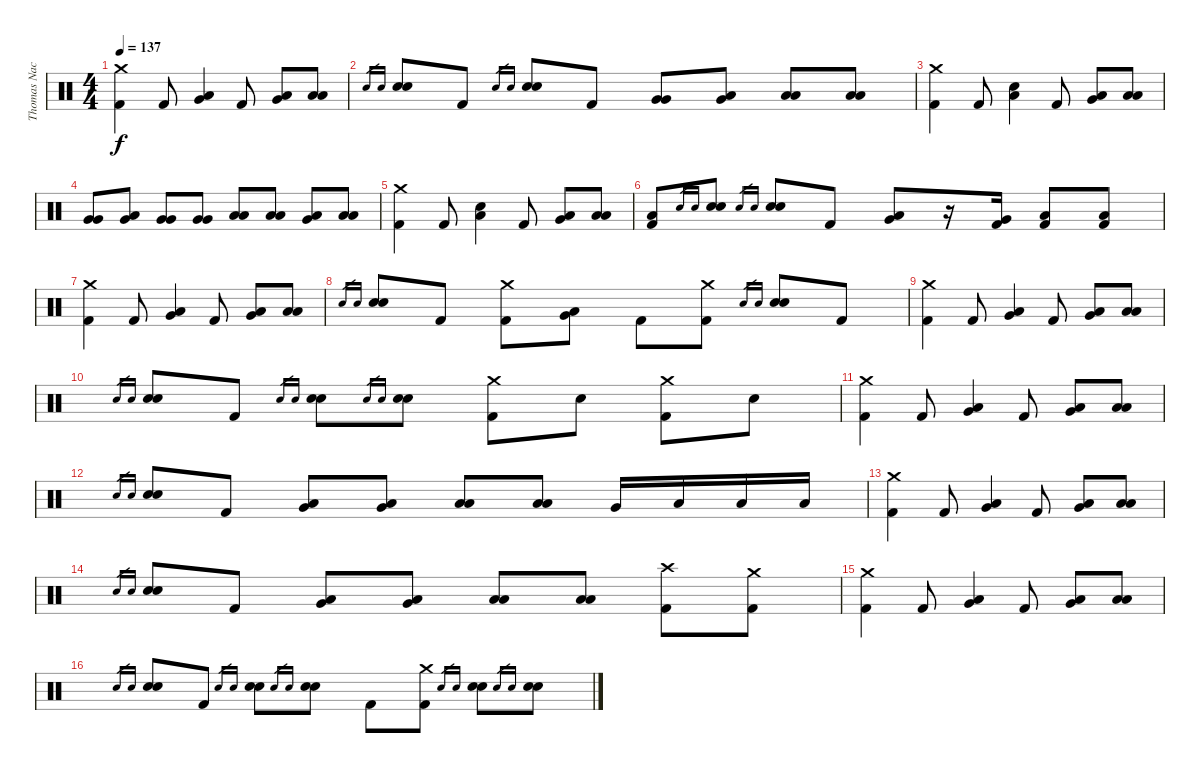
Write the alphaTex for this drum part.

\track ("Thomas Nack" "Thomas Nac") {instrument percussion}
\staff {score}
\articulation defaults
\ts (4 4)
\tempo 137
\clef neutral
\ks c
("Crash medium (hit)" "Kick (hit) 2").4{dy f} "Kick (hit) 2".8 ("Very Low Tom (hit)" "Low Floor Tom (hit)").4 "Kick (hit) 2".8 ("Very Low Tom (hit)" "Low Floor Tom (hit)").8 ("Low Floor Tom (hit)" "Low Floor Tom (hit)").8 |
"Electric Snare (hit)".16{gr} "Electric Snare (hit)".16{gr} ("Electric Snare (hit)" "Electric Snare (hit)").8 "Kick (hit) 2".8 "Electric Snare (hit)".16{gr} "Electric Snare (hit)".16{gr} ("Electric Snare (hit)" "Electric Snare (hit)").8 "Kick (hit) 2".8 ("Very Low Tom (hit)" "Very Low Tom (hit)").8 ("Very Low Tom (hit)" "Low Floor Tom (hit)").8 ("Low Floor Tom (hit)" "Low Floor Tom (hit)").8 ("Low Floor Tom (hit)" "Low Floor Tom (hit)").8 |
("Crash medium (hit)" "Kick (hit) 2").4 "Kick (hit) 2".8 ("Electric Snare (hit)" "Low Floor Tom (hit)").4 "Kick (hit) 2".8 ("Very Low Tom (hit)" "Low Floor Tom (hit)").8 ("Low Floor Tom (hit)" "Low Floor Tom (hit)").8 |
("Very Low Tom (hit)" "Very Low Tom (hit)").8 ("Very Low Tom (hit)" "Low Floor Tom (hit)").8 ("Very Low Tom (hit)" "Very Low Tom (hit)").8 ("Very Low Tom (hit)" "Very Low Tom (hit)").8 ("Low Floor Tom (hit)" "Low Floor Tom (hit)").8 ("Low Floor Tom (hit)" "Low Floor Tom (hit)").8 ("Very Low Tom (hit)" "Low Floor Tom (hit)").8 ("Low Floor Tom (hit)" "Low Floor Tom (hit)").8 |
("Crash medium (hit)" "Kick (hit) 2").4 "Kick (hit) 2".8 ("Electric Snare (hit)" "Low Floor Tom (hit)").4 "Kick (hit) 2".8 ("Very Low Tom (hit)" "Low Floor Tom (hit)").8 ("Low Floor Tom (hit)" "Low Floor Tom (hit)").8 |
("Low Floor Tom (hit)" "Kick (hit) 2").8 "Electric Snare (hit)".16{gr} "Electric Snare (hit)".16{gr} ("Electric Snare (hit)" "Electric Snare (hit)").8 "Electric Snare (hit)".16{gr} "Electric Snare (hit)".16{gr} ("Electric Snare (hit)" "Electric Snare (hit)").8 "Kick (hit) 2".8 ("Very Low Tom (hit)" "Low Floor Tom (hit)").8 r.16 ("Very Low Tom (hit)" "Kick (hit) 2").16 ("Low Floor Tom (hit)" "Kick (hit) 2").8 ("Low Floor Tom (hit)" "Kick (hit) 2").8 |
("Crash medium (hit)" "Kick (hit) 2").4 "Kick (hit) 2".8 ("Very Low Tom (hit)" "Low Floor Tom (hit)").4 "Kick (hit) 2".8 ("Very Low Tom (hit)" "Low Floor Tom (hit)").8 ("Low Floor Tom (hit)" "Low Floor Tom (hit)").8 |
"Electric Snare (hit)".16{gr} "Electric Snare (hit)".16{gr} ("Electric Snare (hit)" "Electric Snare (hit)").8 "Kick (hit) 2".8 ("Crash medium (hit)" "Kick (hit) 2").8 ("Very Low Tom (hit)" "Low Floor Tom (hit)").8 "Kick (hit) 2".8 ("Crash medium (hit)" "Kick (hit) 2").8 "Electric Snare (hit)".16{gr} "Electric Snare (hit)".16{gr} ("Electric Snare (hit)" "Electric Snare (hit)").8 "Kick (hit) 2".8 |
("Crash medium (hit)" "Kick (hit) 2").4 "Kick (hit) 2".8 ("Very Low Tom (hit)" "Low Floor Tom (hit)").4 "Kick (hit) 2".8 ("Very Low Tom (hit)" "Low Floor Tom (hit)").8 ("Low Floor Tom (hit)" "Low Floor Tom (hit)").8 |
"Electric Snare (hit)".16{gr} "Electric Snare (hit)".16{gr} ("Electric Snare (hit)" "Electric Snare (hit)").8 "Kick (hit) 2".8 "Electric Snare (hit)".16{gr} "Electric Snare (hit)".16{gr} ("Electric Snare (hit)" "Electric Snare (hit)").8 "Electric Snare (hit)".16{gr} "Electric Snare (hit)".16{gr} ("Electric Snare (hit)" "Electric Snare (hit)").8 ("Crash medium (hit)" "Kick (hit) 2").8 "Electric Snare (hit)".8 ("Crash medium (hit)" "Kick (hit) 2").8 "Electric Snare (hit)".8 |
("Crash medium (hit)" "Kick (hit) 2").4 "Kick (hit) 2".8 ("Very Low Tom (hit)" "Low Floor Tom (hit)").4 "Kick (hit) 2".8 ("Very Low Tom (hit)" "Low Floor Tom (hit)").8 ("Low Floor Tom (hit)" "Low Floor Tom (hit)").8 |
"Electric Snare (hit)".16{gr} "Electric Snare (hit)".16{gr} ("Electric Snare (hit)" "Electric Snare (hit)").8 "Kick (hit) 2".8 ("Very Low Tom (hit)" "Low Floor Tom (hit)").8 ("Very Low Tom (hit)" "Low Floor Tom (hit)").8 ("Low Floor Tom (hit)" "Low Floor Tom (hit)").8 ("Low Floor Tom (hit)" "Low Floor Tom (hit)").8 "Very Low Tom (hit)".16 "Low Floor Tom (hit)".16 "Low Floor Tom (hit)".16 "Low Floor Tom (hit)".16 |
("Crash medium (hit)" "Kick (hit) 2").4 "Kick (hit) 2".8 ("Very Low Tom (hit)" "Low Floor Tom (hit)").4 "Kick (hit) 2".8 ("Very Low Tom (hit)" "Low Floor Tom (hit)").8 ("Low Floor Tom (hit)" "Low Floor Tom (hit)").8 |
"Electric Snare (hit)".16{gr} "Electric Snare (hit)".16{gr} ("Electric Snare (hit)" "Electric Snare (hit)").8 "Kick (hit) 2".8 ("Very Low Tom (hit)" "Low Floor Tom (hit)").8 ("Very Low Tom (hit)" "Low Floor Tom (hit)").8 ("Low Floor Tom (hit)" "Low Floor Tom (hit)").8 ("Low Floor Tom (hit)" "Low Floor Tom (hit)").8 ("Crash high (hit)" "Kick (hit) 2").8 ("Crash medium (hit)" "Kick (hit) 2").8 |
("Crash medium (hit)" "Kick (hit) 2").4 "Kick (hit) 2".8 ("Very Low Tom (hit)" "Low Floor Tom (hit)").4 "Kick (hit) 2".8 ("Very Low Tom (hit)" "Low Floor Tom (hit)").8 ("Low Floor Tom (hit)" "Low Floor Tom (hit)").8 |
"Electric Snare (hit)".16{gr} "Electric Snare (hit)".16{gr} ("Electric Snare (hit)" "Electric Snare (hit)").8 "Kick (hit) 2".8 "Electric Snare (hit)".16{gr} "Electric Snare (hit)".16{gr} ("Electric Snare (hit)" "Electric Snare (hit)").8 "Electric Snare (hit)".16{gr} "Electric Snare (hit)".16{gr} ("Electric Snare (hit)" "Electric Snare (hit)").8 "Kick (hit) 2".8 ("Crash medium (hit)" "Kick (hit) 2").8 "Electric Snare (hit)".16{gr} "Electric Snare (hit)".16{gr} ("Electric Snare (hit)" "Electric Snare (hit)").8 "Electric Snare (hit)".16{gr} "Electric Snare (hit)".16{gr} ("Electric Snare (hit)" "Electric Snare (hit)").8
